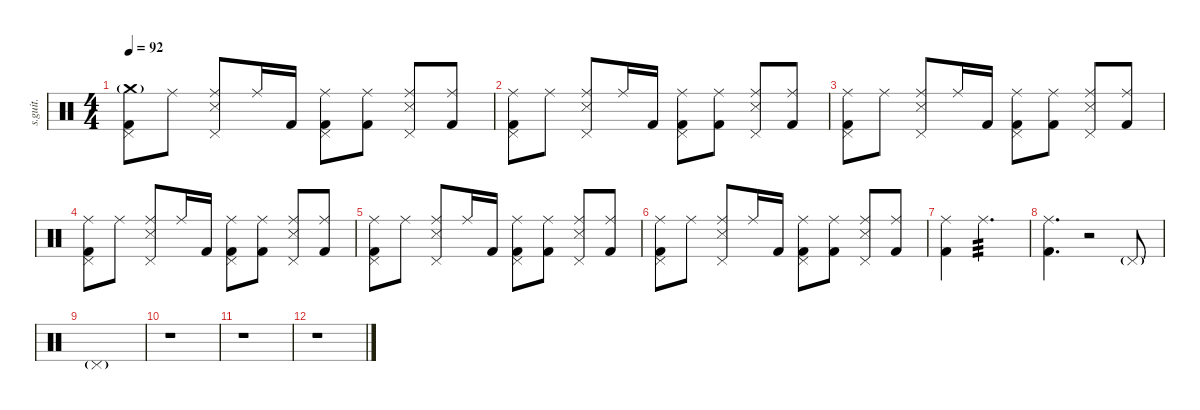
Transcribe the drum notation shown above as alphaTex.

\defaultSystemsLayout 4
\hideDynamics
\bracketExtendMode nobrackets
\track ("Phil Selway | DW Drum Kit | Drums" "s.guit.") {instrument percussion}
\staff {score}
\articulation defaults
\ts (4 4)
\tempo 92
\clef neutral
\ks c
("Crash medium (hit)"{g} "Kick (hit) 2" "Pedal Hi-Hat (hit)").8{dy mf} "Ride (middle)".8 ("Ride (middle)" "Snare (side stick) 3" "Pedal Hi-Hat (hit)").8 "Ride (middle)".16 "Kick (hit) 2".16 ("Ride (middle)" "Kick (hit) 2" "Pedal Hi-Hat (hit)").8 ("Ride (middle)" "Kick (hit) 2").8 ("Ride (middle)" "Snare (side stick) 3" "Pedal Hi-Hat (hit)").8 ("Ride (middle)" "Kick (hit) 2").8 |
("Ride (middle)" "Kick (hit) 2" "Pedal Hi-Hat (hit)").8 "Ride (middle)".8 ("Ride (middle)" "Snare (side stick) 3" "Pedal Hi-Hat (hit)").8 "Ride (middle)".16 "Kick (hit) 2".16 ("Ride (middle)" "Kick (hit) 2" "Pedal Hi-Hat (hit)").8 ("Ride (middle)" "Kick (hit) 2").8 ("Ride (middle)" "Snare (side stick) 3" "Pedal Hi-Hat (hit)").8 ("Ride (middle)" "Kick (hit) 2").8 |
("Ride (middle)" "Kick (hit) 2" "Pedal Hi-Hat (hit)").8 "Ride (middle)".8 ("Ride (middle)" "Snare (side stick) 3" "Pedal Hi-Hat (hit)").8 "Ride (middle)".16 "Kick (hit) 2".16 ("Ride (middle)" "Kick (hit) 2" "Pedal Hi-Hat (hit)").8 ("Ride (middle)" "Kick (hit) 2").8 ("Ride (middle)" "Snare (side stick) 3" "Pedal Hi-Hat (hit)").8 ("Ride (middle)" "Kick (hit) 2").8 |
("Ride (middle)" "Kick (hit) 2" "Pedal Hi-Hat (hit)").8 "Ride (middle)".8 ("Ride (middle)" "Snare (side stick) 3" "Pedal Hi-Hat (hit)").8 "Ride (middle)".16 "Kick (hit) 2".16 ("Ride (middle)" "Kick (hit) 2" "Pedal Hi-Hat (hit)").8 ("Ride (middle)" "Kick (hit) 2").8 ("Ride (middle)" "Snare (side stick) 3" "Pedal Hi-Hat (hit)").8 ("Ride (middle)" "Kick (hit) 2").8 |
("Ride (middle)" "Kick (hit) 2" "Pedal Hi-Hat (hit)").8 "Ride (middle)".8 ("Ride (middle)" "Snare (side stick) 3" "Pedal Hi-Hat (hit)").8 "Ride (middle)".16 "Kick (hit) 2".16 ("Ride (middle)" "Kick (hit) 2" "Pedal Hi-Hat (hit)").8 ("Ride (middle)" "Kick (hit) 2").8 ("Ride (middle)" "Snare (side stick) 3" "Pedal Hi-Hat (hit)").8 ("Ride (middle)" "Kick (hit) 2").8 |
("Ride (middle)" "Kick (hit) 2" "Pedal Hi-Hat (hit)").8 "Ride (middle)".8 ("Ride (middle)" "Snare (side stick) 3" "Pedal Hi-Hat (hit)").8 "Ride (middle)".16 "Kick (hit) 2".16 ("Ride (middle)" "Kick (hit) 2" "Pedal Hi-Hat (hit)").8 ("Ride (middle)" "Kick (hit) 2").8 ("Ride (middle)" "Snare (side stick) 3" "Pedal Hi-Hat (hit)").8 ("Ride (middle)" "Kick (hit) 2").8 |
("Ride (middle)" "Kick (hit) 2").4 "Ride (middle)".2{d tp 3} |
("Ride (middle)" "Kick (hit) 2").4{d} r.2 "Pedal Hi-Hat (hit)"{g}.8 |
"Pedal Hi-Hat (hit)"{g}.1 |
r.1 |
r.1 |
r.1
